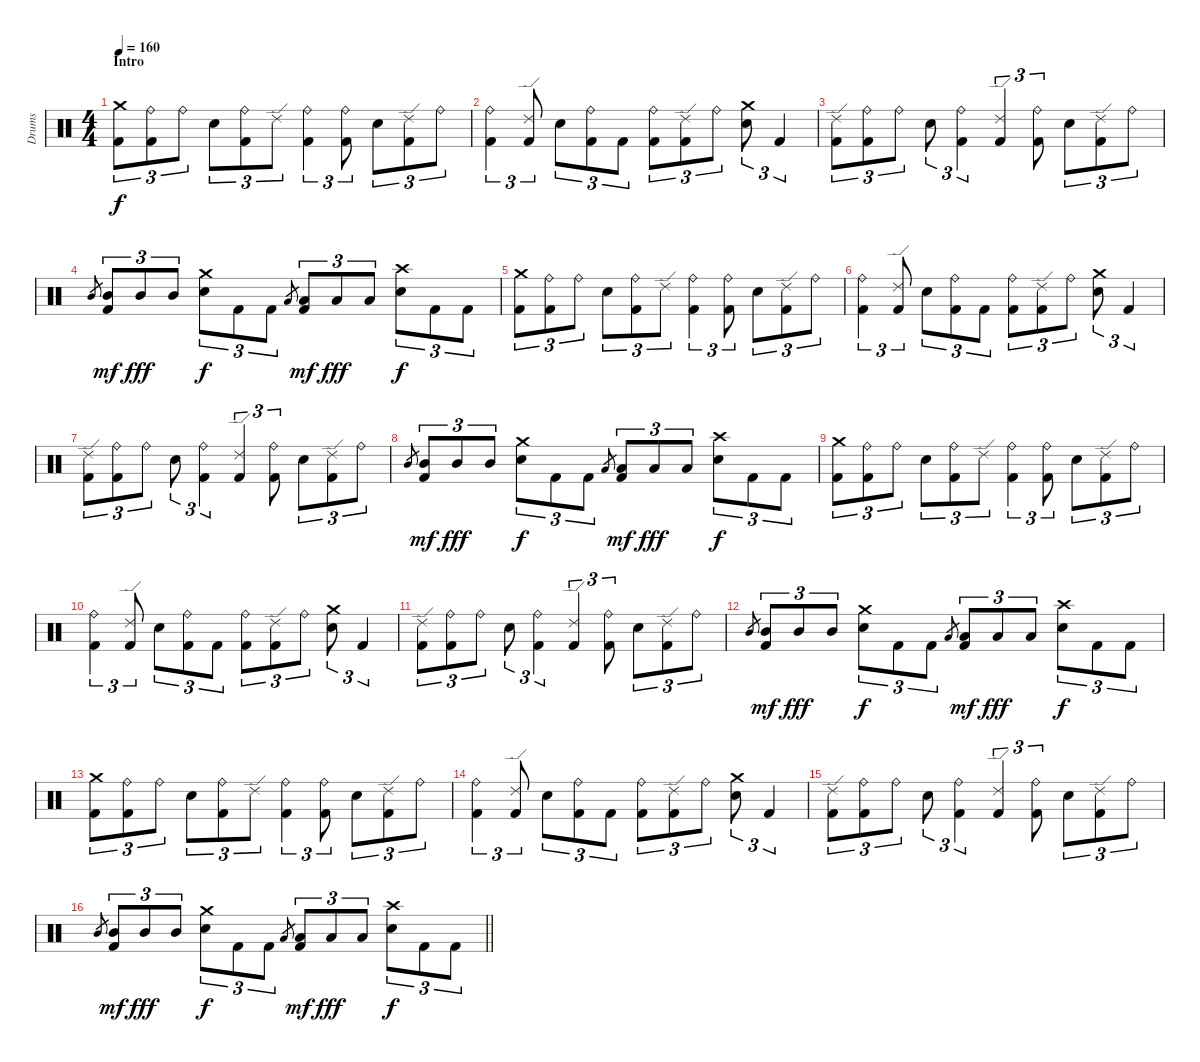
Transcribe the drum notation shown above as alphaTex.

\track ("Drums" "Drums") {instrument percussion}
\staff {score}
\articulation defaults
\ts (4 4)
\section ("" "Intro")
\tempo 160
\clef neutral
\ks c
("Crash medium (hit)" "Kick (hit) 2").8{tu (3 2) dy f} ("Ride (bell)" "Kick (hit) 2").8{tu (3 2)} "Ride (bell)".8{tu (3 2)} "Electric Snare (hit)".8{tu (3 2)} ("Ride (bell)" "Kick (hit) 2").8{tu (3 2)} "Ride (edge) 2".8{tu (3 2)} ("Ride (bell)" "Kick (hit) 2").4{tu (3 2)} ("Ride (bell)" "Kick (hit) 2").8{tu (3 2)} "Electric Snare (hit)".8{tu (3 2)} ("Ride (edge) 2" "Kick (hit) 2").8{tu (3 2)} "Ride (bell)".8{tu (3 2)} |
("Ride (bell)" "Kick (hit) 2").4{tu (3 2)} ("Ride (edge) 2" "Kick (hit) 2").8{tu (3 2)} "Electric Snare (hit)".8{tu (3 2)} ("Ride (bell)" "Kick (hit) 2").8{tu (3 2)} "Kick (hit) 2".8{tu (3 2)} ("Ride (bell)" "Kick (hit) 2").8{tu (3 2)} ("Ride (edge) 2" "Kick (hit) 2").8{tu (3 2)} "Ride (bell)".8{tu (3 2)} ("Crash medium (hit)" "Electric Snare (hit)").8{tu (3 2)} "Kick (hit) 2".4{tu (3 2)} |
("Ride (edge) 2" "Kick (hit) 2").8{tu (3 2)} ("Ride (bell)" "Kick (hit) 2").8{tu (3 2)} "Ride (bell)".8{tu (3 2)} "Electric Snare (hit)".8{tu (3 2)} ("Ride (bell)" "Kick (hit) 2").4{tu (3 2)} ("Ride (edge) 2" "Kick (hit) 2").4{tu (3 2)} ("Ride (bell)" "Kick (hit) 2").8{tu (3 2)} "Electric Snare (hit)".8{tu (3 2)} ("Ride (edge) 2" "Kick (hit) 2").8{tu (3 2)} "Ride (bell)".8{tu (3 2)} |
"Mid Tom (hit)".8{gr} ("Mid Tom (hit)" "Kick (hit) 2").8{tu (3 2) dy mf} "Mid Tom (hit)".8{tu (3 2) dy fff} "Mid Tom (hit)".8{tu (3 2)} ("Crash medium (hit)" "Electric Snare (hit)").8{tu (3 2) dy f} "Kick (hit) 2".8{tu (3 2)} "Kick (hit) 2".8{tu (3 2)} "Low Tom (hit)".8{gr} ("Low Tom (hit)" "Kick (hit) 2").8{tu (3 2) dy mf} "Low Tom (hit)".8{tu (3 2) dy fff} "Low Tom (hit)".8{tu (3 2)} ("Crash high (hit)" "Electric Snare (hit)").8{tu (3 2) dy f} "Kick (hit) 2".8{tu (3 2)} "Kick (hit) 2".8{tu (3 2)} |
("Crash medium (hit)" "Kick (hit) 2").8{tu (3 2)} ("Ride (bell)" "Kick (hit) 2").8{tu (3 2)} "Ride (bell)".8{tu (3 2)} "Electric Snare (hit)".8{tu (3 2)} ("Ride (bell)" "Kick (hit) 2").8{tu (3 2)} "Ride (edge) 2".8{tu (3 2)} ("Ride (bell)" "Kick (hit) 2").4{tu (3 2)} ("Ride (bell)" "Kick (hit) 2").8{tu (3 2)} "Electric Snare (hit)".8{tu (3 2)} ("Ride (edge) 2" "Kick (hit) 2").8{tu (3 2)} "Ride (bell)".8{tu (3 2)} |
("Ride (bell)" "Kick (hit) 2").4{tu (3 2)} ("Ride (edge) 2" "Kick (hit) 2").8{tu (3 2)} "Electric Snare (hit)".8{tu (3 2)} ("Ride (bell)" "Kick (hit) 2").8{tu (3 2)} "Kick (hit) 2".8{tu (3 2)} ("Ride (bell)" "Kick (hit) 2").8{tu (3 2)} ("Ride (edge) 2" "Kick (hit) 2").8{tu (3 2)} "Ride (bell)".8{tu (3 2)} ("Crash medium (hit)" "Electric Snare (hit)").8{tu (3 2)} "Kick (hit) 2".4{tu (3 2)} |
("Ride (edge) 2" "Kick (hit) 2").8{tu (3 2)} ("Ride (bell)" "Kick (hit) 2").8{tu (3 2)} "Ride (bell)".8{tu (3 2)} "Electric Snare (hit)".8{tu (3 2)} ("Ride (bell)" "Kick (hit) 2").4{tu (3 2)} ("Ride (edge) 2" "Kick (hit) 2").4{tu (3 2)} ("Ride (bell)" "Kick (hit) 2").8{tu (3 2)} "Electric Snare (hit)".8{tu (3 2)} ("Ride (edge) 2" "Kick (hit) 2").8{tu (3 2)} "Ride (bell)".8{tu (3 2)} |
"Mid Tom (hit)".8{gr} ("Mid Tom (hit)" "Kick (hit) 2").8{tu (3 2) dy mf} "Mid Tom (hit)".8{tu (3 2) dy fff} "Mid Tom (hit)".8{tu (3 2)} ("Crash medium (hit)" "Electric Snare (hit)").8{tu (3 2) dy f} "Kick (hit) 2".8{tu (3 2)} "Kick (hit) 2".8{tu (3 2)} "Low Tom (hit)".8{gr} ("Low Tom (hit)" "Kick (hit) 2").8{tu (3 2) dy mf} "Low Tom (hit)".8{tu (3 2) dy fff} "Low Tom (hit)".8{tu (3 2)} ("Crash high (hit)" "Electric Snare (hit)").8{tu (3 2) dy f} "Kick (hit) 2".8{tu (3 2)} "Kick (hit) 2".8{tu (3 2)} |
("Crash medium (hit)" "Kick (hit) 2").8{tu (3 2)} ("Ride (bell)" "Kick (hit) 2").8{tu (3 2)} "Ride (bell)".8{tu (3 2)} "Electric Snare (hit)".8{tu (3 2)} ("Ride (bell)" "Kick (hit) 2").8{tu (3 2)} "Ride (edge) 2".8{tu (3 2)} ("Ride (bell)" "Kick (hit) 2").4{tu (3 2)} ("Ride (bell)" "Kick (hit) 2").8{tu (3 2)} "Electric Snare (hit)".8{tu (3 2)} ("Ride (edge) 2" "Kick (hit) 2").8{tu (3 2)} "Ride (bell)".8{tu (3 2)} |
("Ride (bell)" "Kick (hit) 2").4{tu (3 2)} ("Ride (edge) 2" "Kick (hit) 2").8{tu (3 2)} "Electric Snare (hit)".8{tu (3 2)} ("Ride (bell)" "Kick (hit) 2").8{tu (3 2)} "Kick (hit) 2".8{tu (3 2)} ("Ride (bell)" "Kick (hit) 2").8{tu (3 2)} ("Ride (edge) 2" "Kick (hit) 2").8{tu (3 2)} "Ride (bell)".8{tu (3 2)} ("Crash medium (hit)" "Electric Snare (hit)").8{tu (3 2)} "Kick (hit) 2".4{tu (3 2)} |
("Ride (edge) 2" "Kick (hit) 2").8{tu (3 2)} ("Ride (bell)" "Kick (hit) 2").8{tu (3 2)} "Ride (bell)".8{tu (3 2)} "Electric Snare (hit)".8{tu (3 2)} ("Ride (bell)" "Kick (hit) 2").4{tu (3 2)} ("Ride (edge) 2" "Kick (hit) 2").4{tu (3 2)} ("Ride (bell)" "Kick (hit) 2").8{tu (3 2)} "Electric Snare (hit)".8{tu (3 2)} ("Ride (edge) 2" "Kick (hit) 2").8{tu (3 2)} "Ride (bell)".8{tu (3 2)} |
"Mid Tom (hit)".8{gr} ("Mid Tom (hit)" "Kick (hit) 2").8{tu (3 2) dy mf} "Mid Tom (hit)".8{tu (3 2) dy fff} "Mid Tom (hit)".8{tu (3 2)} ("Crash medium (hit)" "Electric Snare (hit)").8{tu (3 2) dy f} "Kick (hit) 2".8{tu (3 2)} "Kick (hit) 2".8{tu (3 2)} "Low Tom (hit)".8{gr} ("Low Tom (hit)" "Kick (hit) 2").8{tu (3 2) dy mf} "Low Tom (hit)".8{tu (3 2) dy fff} "Low Tom (hit)".8{tu (3 2)} ("Crash high (hit)" "Electric Snare (hit)").8{tu (3 2) dy f} "Kick (hit) 2".8{tu (3 2)} "Kick (hit) 2".8{tu (3 2)} |
("Crash medium (hit)" "Kick (hit) 2").8{tu (3 2)} ("Ride (bell)" "Kick (hit) 2").8{tu (3 2)} "Ride (bell)".8{tu (3 2)} "Electric Snare (hit)".8{tu (3 2)} ("Ride (bell)" "Kick (hit) 2").8{tu (3 2)} "Ride (edge) 2".8{tu (3 2)} ("Ride (bell)" "Kick (hit) 2").4{tu (3 2)} ("Ride (bell)" "Kick (hit) 2").8{tu (3 2)} "Electric Snare (hit)".8{tu (3 2)} ("Ride (edge) 2" "Kick (hit) 2").8{tu (3 2)} "Ride (bell)".8{tu (3 2)} |
("Ride (bell)" "Kick (hit) 2").4{tu (3 2)} ("Ride (edge) 2" "Kick (hit) 2").8{tu (3 2)} "Electric Snare (hit)".8{tu (3 2)} ("Ride (bell)" "Kick (hit) 2").8{tu (3 2)} "Kick (hit) 2".8{tu (3 2)} ("Ride (bell)" "Kick (hit) 2").8{tu (3 2)} ("Ride (edge) 2" "Kick (hit) 2").8{tu (3 2)} "Ride (bell)".8{tu (3 2)} ("Crash medium (hit)" "Electric Snare (hit)").8{tu (3 2)} "Kick (hit) 2".4{tu (3 2)} |
("Ride (edge) 2" "Kick (hit) 2").8{tu (3 2)} ("Ride (bell)" "Kick (hit) 2").8{tu (3 2)} "Ride (bell)".8{tu (3 2)} "Electric Snare (hit)".8{tu (3 2)} ("Ride (bell)" "Kick (hit) 2").4{tu (3 2)} ("Ride (edge) 2" "Kick (hit) 2").4{tu (3 2)} ("Ride (bell)" "Kick (hit) 2").8{tu (3 2)} "Electric Snare (hit)".8{tu (3 2)} ("Ride (edge) 2" "Kick (hit) 2").8{tu (3 2)} "Ride (bell)".8{tu (3 2)} |
\barLineRight lightlight "Mid Tom (hit)".8{gr}
("Mid Tom (hit)" "Kick (hit) 2").8{tu (3 2) dy mf} "Mid Tom (hit)".8{tu (3 2) dy fff} "Mid Tom (hit)".8{tu (3 2)} ("Crash medium (hit)" "Electric Snare (hit)").8{tu (3 2) dy f} "Kick (hit) 2".8{tu (3 2)} "Kick (hit) 2".8{tu (3 2)} "Low Tom (hit)".8{gr} ("Low Tom (hit)" "Kick (hit) 2").8{tu (3 2) dy mf} "Low Tom (hit)".8{tu (3 2) dy fff} "Low Tom (hit)".8{tu (3 2)} ("Crash high (hit)" "Electric Snare (hit)").8{tu (3 2) dy f} "Kick (hit) 2".8{tu (3 2)} "Kick (hit) 2".8{tu (3 2)}
